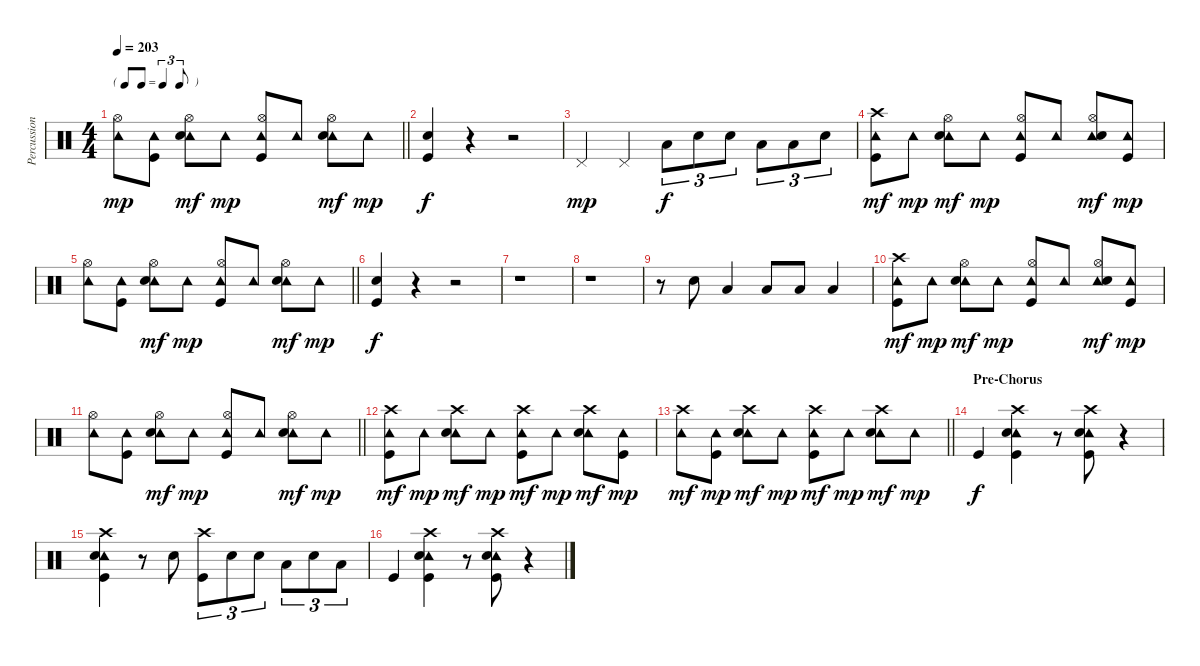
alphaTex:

\track ("Percussion" "Percussion") {instrument percussion}
\staff {score}
\articulation defaults
\ts (4 4)
\tf triplet8th
\tempo 203
\clef neutral
\barLineRight lightlight
\ks c
("Tambourine (hit)" "Hi-Hat (open)").8{dy mp} ("Tambourine (hit)" "Kick (hit)").8 ("Tambourine (hit)" "Hi-Hat (open)" "Snare (hit) 2").8{dy mf} "Tambourine (hit)".8{dy mp} ("Tambourine (hit)" "Hi-Hat (open)" "Kick (hit)").8 "Tambourine (hit)".8 ("Tambourine (hit)" "Hi-Hat (open)" "Snare (hit) 2").8{dy mf} "Tambourine (hit)".8{dy mp} |
("Snare (hit) 2" "Kick (hit)").4{dy f} r.4 r.2 |
"Pedal Hi-Hat (hit)".4{dy mp} "Pedal Hi-Hat (hit)".4 "Low Tom (hit)".8{tu (3 2) dy f} "Snare (hit) 2".8{tu (3 2)} "Snare (hit) 2".8{tu (3 2)} "Low Tom (hit)".8{tu (3 2)} "Low Floor Tom (hit)".8{tu (3 2)} "Snare (hit) 2".8{tu (3 2)} |
("Tambourine (hit)" "Crash high (hit)" "Kick (hit)").8{dy mf} "Tambourine (hit)".8{dy mp} ("Tambourine (hit)" "Hi-Hat (open)" "Snare (hit) 2").8{dy mf} "Tambourine (hit)".8{dy mp} ("Tambourine (hit)" "Hi-Hat (open)" "Kick (hit)").8 "Tambourine (hit)".8 ("Tambourine (hit)" "Hi-Hat (open)" "Snare (hit) 2").8{dy mf} ("Tambourine (hit)" "Kick (hit)").8{dy mp} |
\barLineRight lightlight
("Tambourine (hit)" "Hi-Hat (open)").8 ("Tambourine (hit)" "Kick (hit)").8 ("Tambourine (hit)" "Hi-Hat (open)" "Snare (hit) 2").8{dy mf} "Tambourine (hit)".8{dy mp} ("Tambourine (hit)" "Hi-Hat (open)" "Kick (hit)").8 "Tambourine (hit)".8 ("Tambourine (hit)" "Hi-Hat (open)" "Snare (hit) 2").8{dy mf} "Tambourine (hit)".8{dy mp} |
("Snare (hit) 2" "Kick (hit)").4{dy f} r.4 r.2 |
r.1 |
r.1 |
r.8 "Snare (hit) 2".8 "Low Floor Tom (hit)".4 "Low Floor Tom (hit)".8 "Low Floor Tom (hit)".8 "Low Floor Tom (hit)".4 |
("Tambourine (hit)" "Crash high (hit)" "Kick (hit)").8{dy mf} "Tambourine (hit)".8{dy mp} ("Tambourine (hit)" "Hi-Hat (open)" "Snare (hit) 2").8{dy mf} "Tambourine (hit)".8{dy mp} ("Tambourine (hit)" "Hi-Hat (open)" "Kick (hit)").8 "Tambourine (hit)".8 ("Tambourine (hit)" "Hi-Hat (open)" "Snare (hit) 2").8{dy mf} ("Tambourine (hit)" "Kick (hit)").8{dy mp} |
\barLineRight lightlight
("Tambourine (hit)" "Hi-Hat (open)").8 ("Tambourine (hit)" "Kick (hit)").8 ("Tambourine (hit)" "Hi-Hat (open)" "Snare (hit) 2").8{dy mf} "Tambourine (hit)".8{dy mp} ("Tambourine (hit)" "Hi-Hat (open)" "Kick (hit)").8 "Tambourine (hit)".8 ("Tambourine (hit)" "Hi-Hat (open)" "Snare (hit) 2").8{dy mf} "Tambourine (hit)".8{dy mp} |
("Tambourine (hit)" "Crash high (hit)" "Kick (hit)").8{dy mf} "Tambourine (hit)".8{dy mp} ("Tambourine (hit)" "Crash high (hit)" "Snare (hit) 2").8{dy mf} "Tambourine (hit)".8{dy mp} ("Tambourine (hit)" "Crash high (hit)" "Kick (hit)").8{dy mf} "Tambourine (hit)".8{dy mp} ("Tambourine (hit)" "Crash high (hit)" "Snare (hit) 2").8{dy mf} ("Tambourine (hit)" "Kick (hit)").8{dy mp} |
\barLineRight lightlight
("Tambourine (hit)" "Crash high (hit)").8{dy mf} ("Tambourine (hit)" "Kick (hit)").8{dy mp} ("Tambourine (hit)" "Crash high (hit)" "Snare (hit) 2").8{dy mf} "Tambourine (hit)".8{dy mp} ("Tambourine (hit)" "Crash high (hit)" "Kick (hit)").8{dy mf} "Tambourine (hit)".8{dy mp} ("Tambourine (hit)" "Crash high (hit)" "Snare (hit) 2").8{dy mf} "Tambourine (hit)".8{dy mp} |
\section ("" "Pre-Chorus")
"Kick (hit)".4{dy f} ("Tambourine (hit)" "Crash high (hit)" "Snare (hit) 2" "Kick (hit)").4 r.8 ("Tambourine (hit)" "Crash high (hit)" "Snare (hit) 2" "Kick (hit)").8 r.4 |
("Tambourine (hit)" "Crash high (hit)" "Snare (hit) 2" "Kick (hit)").4 r.8 "Snare (hit) 2".8 ("Crash high (hit)" "Kick (hit)").8{tu (3 2)} "Snare (hit) 2".8{tu (3 2)} "Snare (hit) 2".8{tu (3 2)} "Low Tom (hit)".8{tu (3 2)} "Snare (hit) 2".8{tu (3 2)} "Low Tom (hit)".8{tu (3 2)} |
"Kick (hit)".4 ("Tambourine (hit)" "Crash high (hit)" "Snare (hit) 2" "Kick (hit)").4 r.8 ("Tambourine (hit)" "Crash high (hit)" "Snare (hit) 2" "Kick (hit)").8 r.4
